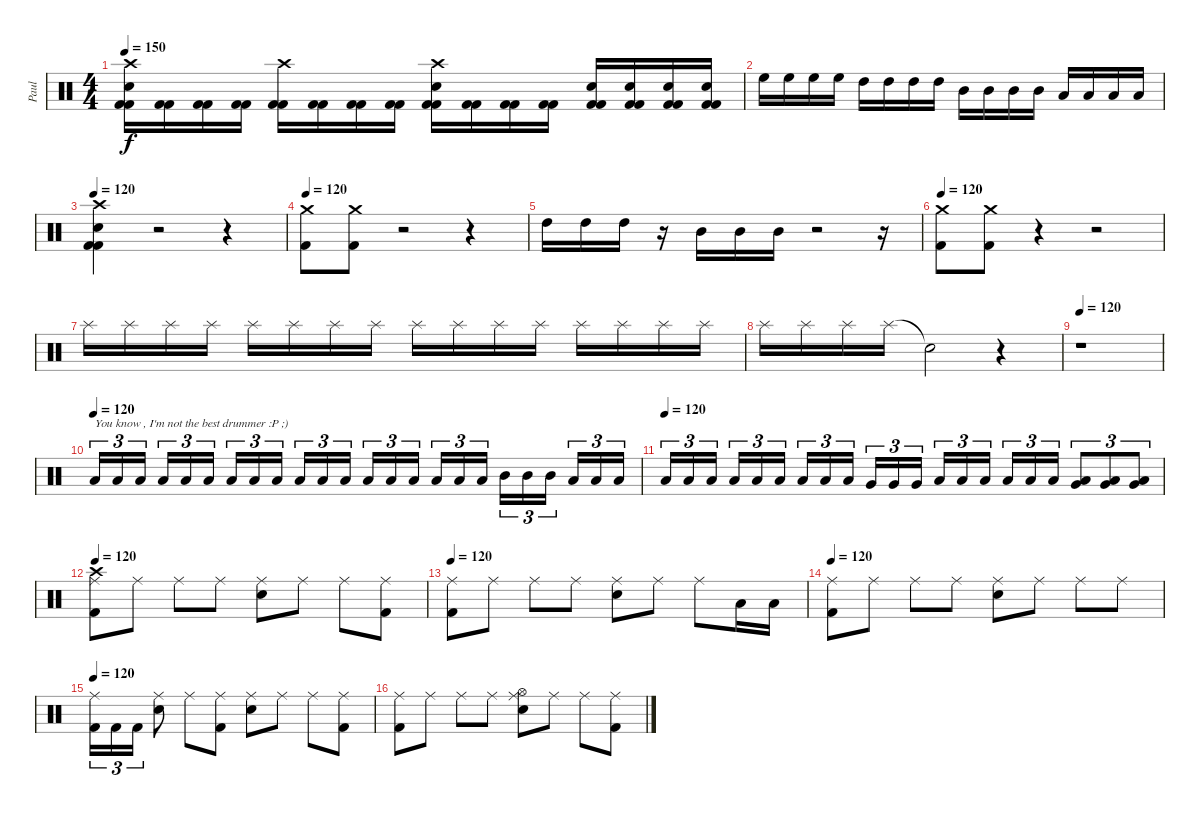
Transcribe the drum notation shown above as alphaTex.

\track ("Paul " "Paul ") {instrument percussion}
\staff {score}
\articulation defaults
\ts (4 4)
\tempo 150
\clef neutral
\ks c
("Crash high (hit)" "Electric Snare (hit)" "Kick (hit) 2" "Kick (hit) 2").16{dy f} ("Kick (hit) 2" "Kick (hit) 2").16 ("Kick (hit) 2" "Kick (hit) 2").16 ("Kick (hit) 2" "Kick (hit) 2").16 ("Crash high (hit)" "Kick (hit) 2" "Kick (hit) 2").16 ("Kick (hit) 2" "Kick (hit) 2").16 ("Kick (hit) 2" "Kick (hit) 2").16 ("Kick (hit) 2" "Kick (hit) 2").16 ("Crash high (hit)" "Electric Snare (hit)" "Kick (hit) 2" "Kick (hit) 2").16 ("Kick (hit) 2" "Kick (hit) 2").16 ("Kick (hit) 2" "Kick (hit) 2").16 ("Kick (hit) 2" "Kick (hit) 2").16 ("Electric Snare (hit)" "Kick (hit) 2" "Kick (hit) 2").16 ("Electric Snare (hit)" "Kick (hit) 2" "Kick (hit) 2").16 ("Electric Snare (hit)" "Kick (hit) 2" "Kick (hit) 2").16 ("Electric Snare (hit)" "Kick (hit) 2" "Kick (hit) 2").16 |
"High Floor Tom (hit)".16 "High Floor Tom (hit)".16 "High Floor Tom (hit)".16 "High Floor Tom (hit)".16 "High Tom (hit)".16 "High Tom (hit)".16 "High Tom (hit)".16 "High Tom (hit)".16 "Mid Tom (hit)".16 "Mid Tom (hit)".16 "Mid Tom (hit)".16 "Mid Tom (hit)".16 "Low Tom (hit)".16 "Low Tom (hit)".16 "Low Tom (hit)".16 "Low Tom (hit)".16 |
\tempo 120
("Crash high (hit)" "Kick (hit) 2" "Electric Snare (hit)" "Kick (hit) 2").4 r.2 r.4 |
\tempo 120
("Crash medium (hit)" "Kick (hit) 2").8 ("Crash medium (hit)" "Kick (hit) 2").8 r.2 r.4 |
"High Tom (hit)".16 "High Tom (hit)".16 "High Tom (hit)".16 r.16 "Mid Tom (hit)".16 "Mid Tom (hit)".16 "Mid Tom (hit)".16 r.2 r.16 |
\tempo 120
("Crash medium (hit)" "Kick (hit) 2").8 ("Crash medium (hit)" "Kick (hit) 2").8 r.4 r.2 |
"Splash (hit)".16{volume 0} "Splash (hit)".16{volume 16} "Splash (hit)".16 "Splash (hit)".16 "Splash (hit)".16 "Splash (hit)".16 "Splash (hit)".16 "Splash (hit)".16 "Splash (hit)".16 "Splash (hit)".16 "Splash (hit)".16 "Splash (hit)".16 "Splash (hit)".16 "Splash (hit)".16 "Splash (hit)".16 "Splash (hit)".16 |
"Splash (hit)".16 "Splash (hit)".16 "Splash (hit)".16 "Splash (hit)".16 "Snare (hit)"{t}.2 r.4 |
\tempo 120
r.1 |
\tempo (120)
"Low Floor Tom (hit)".16{tu (3 2) txt "You know , I'm not the best drummer :P ;)"} "Low Floor Tom (hit)".16{tu (3 2)} "Low Floor Tom (hit)".16{tu (3 2)} "Low Floor Tom (hit)".16{tu (3 2)} "Low Floor Tom (hit)".16{tu (3 2)} "Low Floor Tom (hit)".16{tu (3 2)} "Low Tom (hit)".16{tu (3 2)} "Low Tom (hit)".16{tu (3 2)} "Low Floor Tom (hit)".16{tu (3 2)} "Low Floor Tom (hit)".16{tu (3 2)} "Low Floor Tom (hit)".16{tu (3 2)} "Low Floor Tom (hit)".16{tu (3 2)} "Low Floor Tom (hit)".16{tu (3 2)} "Low Floor Tom (hit)".16{tu (3 2)} "Low Floor Tom (hit)".16{tu (3 2)} "Low Floor Tom (hit)".16{tu (3 2)} "Low Floor Tom (hit)".16{tu (3 2)} "Low Floor Tom (hit)".16{tu (3 2)} "Mid Tom (hit)".16{tu (3 2)} "Mid Tom (hit)".16{tu (3 2)} "Mid Tom (hit)".16{tu (3 2)} "Low Floor Tom (hit)".16{tu (3 2)} "Low Floor Tom (hit)".16{tu (3 2)} "Low Floor Tom (hit)".16{tu (3 2)} |
\tempo (120)
"Low Floor Tom (hit)".16{tu (3 2)} "Low Floor Tom (hit)".16{tu (3 2)} "Low Floor Tom (hit)".16{tu (3 2)} "Low Floor Tom (hit)".16{tu (3 2)} "Low Floor Tom (hit)".16{tu (3 2)} "Low Floor Tom (hit)".16{tu (3 2)} "Low Tom (hit)".16{tu (3 2)} "Low Tom (hit)".16{tu (3 2)} "Low Tom (hit)".16{tu (3 2)} "Very Low Tom (hit)".16{tu (3 2)} "Very Low Tom (hit)".16{tu (3 2)} "Very Low Tom (hit)".16{tu (3 2)} "Low Floor Tom (hit)".16{tu (3 2)} "Low Floor Tom (hit)".16{tu (3 2)} "Low Floor Tom (hit)".16{tu (3 2)} "Low Floor Tom (hit)".16{tu (3 2)} "Low Floor Tom (hit)".16{tu (3 2)} "Low Floor Tom (hit)".16{tu (3 2)} ("Low Floor Tom (hit)" "Very Low Tom (hit)").8{tu (3 2)} ("Low Floor Tom (hit)" "Very Low Tom (hit)").8{tu (3 2)} ("Low Floor Tom (hit)" "Very Low Tom (hit)").8{tu (3 2)} |
\tempo 120
("Crash high (hit)" "Ride (middle)" "Kick (hit) 2").8 "Ride (middle)".8 "Ride (middle)".8 "Ride (middle)".8 ("Ride (middle)" "Electric Snare (hit)").8 "Ride (middle)".8 "Ride (middle)".8 ("Ride (middle)" "Kick (hit) 2").8 |
\tempo 120
("Ride (middle)" "Kick (hit) 2").8 "Ride (middle)".8 "Ride (middle)".8 "Ride (middle)".8 ("Ride (middle)" "Electric Snare (hit)").8 "Ride (middle)".8 "Ride (middle)".8 "Low Floor Tom (hit)".16 "Low Floor Tom (hit)".16 |
\tempo 120
("Ride (middle)" "Kick (hit) 2").8 "Ride (middle)".8 "Ride (middle)".8 "Ride (middle)".8 ("Ride (middle)" "Electric Snare (hit)").8 "Ride (middle)".8 "Ride (middle)".8 "Ride (middle)".8 |
\tempo 120
("Ride (middle)" "Kick (hit) 2").16{tu (3 2)} "Kick (hit) 2".16{tu (3 2)} "Kick (hit) 2".16{tu (3 2)} ("Ride (middle)" "Electric Snare (hit)").8 "Ride (middle)".8 ("Ride (middle)" "Kick (hit) 2").8 ("Ride (middle)" "Electric Snare (hit)").8 "Ride (middle)".8 "Ride (middle)".8 ("Ride (middle)" "Kick (hit) 2").8 |
("Ride (middle)" "Kick (hit) 2").8 "Ride (middle)".8 "Ride (middle)".8 "Ride (middle)".8 ("Hi-Hat (open)" "Ride (middle)" "Electric Snare (hit)").8 "Ride (middle)".8 "Ride (middle)".8 ("Ride (middle)" "Kick (hit) 2").8
